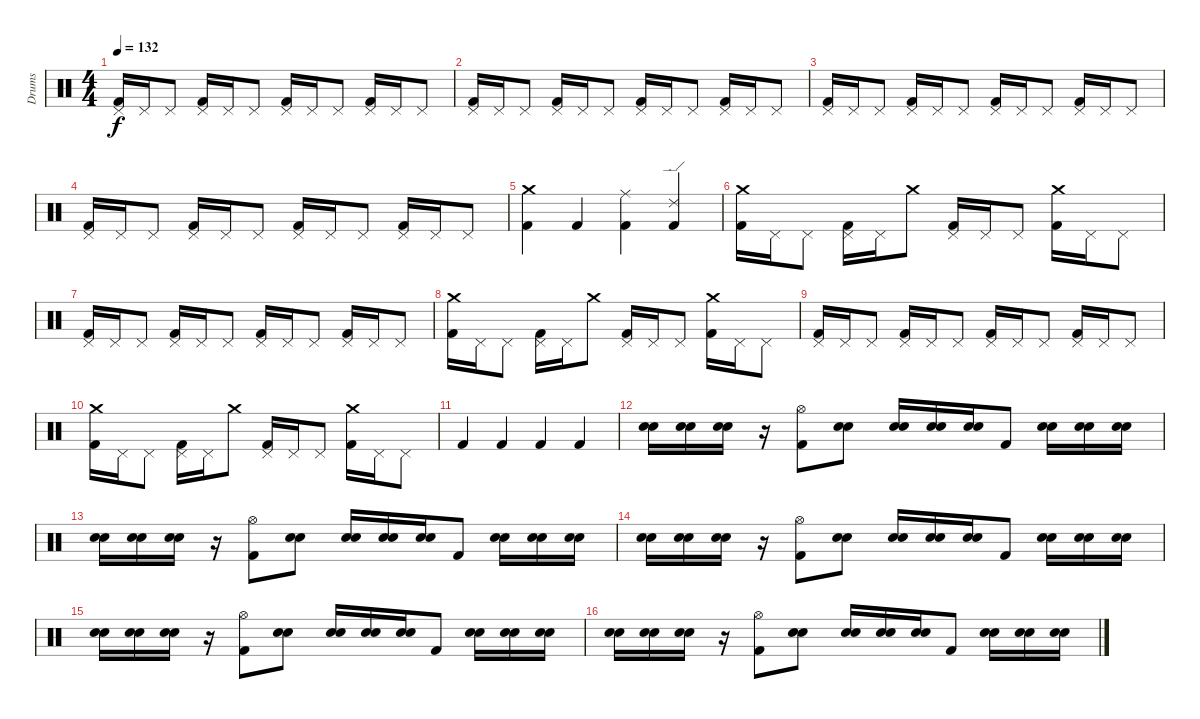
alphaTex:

\track ("Drums" "Drums") {instrument percussion}
\staff {score}
\articulation defaults
\ts (4 4)
\tempo 132
\clef neutral
\ks c
("Kick (hit) 2" "Pedal Hi-Hat (hit)").16{dy f volume 8} "Pedal Hi-Hat (hit)".16 "Pedal Hi-Hat (hit)".8 ("Kick (hit) 2" "Pedal Hi-Hat (hit)").16 "Pedal Hi-Hat (hit)".16 "Pedal Hi-Hat (hit)".8 ("Kick (hit) 2" "Pedal Hi-Hat (hit)").16 "Pedal Hi-Hat (hit)".16 "Pedal Hi-Hat (hit)".8 ("Kick (hit) 2" "Pedal Hi-Hat (hit)").16 "Pedal Hi-Hat (hit)".16 "Pedal Hi-Hat (hit)".8 |
("Kick (hit) 2" "Pedal Hi-Hat (hit)").16{volume 8} "Pedal Hi-Hat (hit)".16 "Pedal Hi-Hat (hit)".8 ("Kick (hit) 2" "Pedal Hi-Hat (hit)").16 "Pedal Hi-Hat (hit)".16 "Pedal Hi-Hat (hit)".8 ("Kick (hit) 2" "Pedal Hi-Hat (hit)").16 "Pedal Hi-Hat (hit)".16 "Pedal Hi-Hat (hit)".8 ("Kick (hit) 2" "Pedal Hi-Hat (hit)").16 "Pedal Hi-Hat (hit)".16 "Pedal Hi-Hat (hit)".8 |
("Kick (hit) 2" "Pedal Hi-Hat (hit)").16{volume 8} "Pedal Hi-Hat (hit)".16 "Pedal Hi-Hat (hit)".8 ("Kick (hit) 2" "Pedal Hi-Hat (hit)").16 "Pedal Hi-Hat (hit)".16 "Pedal Hi-Hat (hit)".8 ("Kick (hit) 2" "Pedal Hi-Hat (hit)").16 "Pedal Hi-Hat (hit)".16 "Pedal Hi-Hat (hit)".8 ("Kick (hit) 2" "Pedal Hi-Hat (hit)").16 "Pedal Hi-Hat (hit)".16 "Pedal Hi-Hat (hit)".8 |
("Kick (hit) 2" "Pedal Hi-Hat (hit)").16{volume 8} "Pedal Hi-Hat (hit)".16 "Pedal Hi-Hat (hit)".8 ("Kick (hit) 2" "Pedal Hi-Hat (hit)").16 "Pedal Hi-Hat (hit)".16 "Pedal Hi-Hat (hit)".8 ("Kick (hit) 2" "Pedal Hi-Hat (hit)").16 "Pedal Hi-Hat (hit)".16 "Pedal Hi-Hat (hit)".8 ("Kick (hit) 2" "Pedal Hi-Hat (hit)").16 "Pedal Hi-Hat (hit)".16 "Pedal Hi-Hat (hit)".8 |
("Kick (hit) 2" "Crash medium (hit)").4 "Kick (hit) 2".4 ("Kick (hit) 2" "Ride (middle)").4 ("Kick (hit) 2" "Ride (edge) 2").4 |
("Kick (hit) 2" "Crash medium (hit)").16{volume 8} "Pedal Hi-Hat (hit)".16 "Pedal Hi-Hat (hit)".8 ("Kick (hit) 2" "Pedal Hi-Hat (hit)").16 "Pedal Hi-Hat (hit)".16 "Crash medium (hit)".8 ("Kick (hit) 2" "Pedal Hi-Hat (hit)").16 "Pedal Hi-Hat (hit)".16 "Pedal Hi-Hat (hit)".8 ("Kick (hit) 2" "Crash medium (hit)").16 "Pedal Hi-Hat (hit)".16 "Pedal Hi-Hat (hit)".8 |
("Kick (hit) 2" "Pedal Hi-Hat (hit)").16{volume 8} "Pedal Hi-Hat (hit)".16 "Pedal Hi-Hat (hit)".8 ("Kick (hit) 2" "Pedal Hi-Hat (hit)").16 "Pedal Hi-Hat (hit)".16 "Pedal Hi-Hat (hit)".8 ("Kick (hit) 2" "Pedal Hi-Hat (hit)").16 "Pedal Hi-Hat (hit)".16 "Pedal Hi-Hat (hit)".8 ("Kick (hit) 2" "Pedal Hi-Hat (hit)").16 "Pedal Hi-Hat (hit)".16 "Pedal Hi-Hat (hit)".8 |
("Kick (hit) 2" "Crash medium (hit)").16{volume 8} "Pedal Hi-Hat (hit)".16 "Pedal Hi-Hat (hit)".8 ("Kick (hit) 2" "Pedal Hi-Hat (hit)").16 "Pedal Hi-Hat (hit)".16 "Crash medium (hit)".8 ("Kick (hit) 2" "Pedal Hi-Hat (hit)").16 "Pedal Hi-Hat (hit)".16 "Pedal Hi-Hat (hit)".8 ("Kick (hit) 2" "Crash medium (hit)").16 "Pedal Hi-Hat (hit)".16 "Pedal Hi-Hat (hit)".8 |
("Kick (hit) 2" "Pedal Hi-Hat (hit)").16{volume 8} "Pedal Hi-Hat (hit)".16 "Pedal Hi-Hat (hit)".8 ("Kick (hit) 2" "Pedal Hi-Hat (hit)").16 "Pedal Hi-Hat (hit)".16 "Pedal Hi-Hat (hit)".8 ("Kick (hit) 2" "Pedal Hi-Hat (hit)").16 "Pedal Hi-Hat (hit)".16 "Pedal Hi-Hat (hit)".8 ("Kick (hit) 2" "Pedal Hi-Hat (hit)").16 "Pedal Hi-Hat (hit)".16 "Pedal Hi-Hat (hit)".8 |
("Kick (hit) 2" "Crash medium (hit)").16{volume 8} "Pedal Hi-Hat (hit)".16 "Pedal Hi-Hat (hit)".8 ("Kick (hit) 2" "Pedal Hi-Hat (hit)").16 "Pedal Hi-Hat (hit)".16 "Crash medium (hit)".8 ("Kick (hit) 2" "Pedal Hi-Hat (hit)").16 "Pedal Hi-Hat (hit)".16 "Pedal Hi-Hat (hit)".8 ("Kick (hit) 2" "Crash medium (hit)").16 "Pedal Hi-Hat (hit)".16 "Pedal Hi-Hat (hit)".8 |
"Kick (hit) 2".4 "Kick (hit) 2".4 "Kick (hit) 2".4 "Kick (hit) 2".4 |
("Snare (hit) 2" "Electric Snare (hit)").16 ("Snare (hit) 2" "Electric Snare (hit)").16 ("Snare (hit) 2" "Electric Snare (hit)").16 r.16 ("Kick (hit) 2" "Hi-Hat (open)").8 ("Snare (hit) 2" "Electric Snare (hit)").8 ("Snare (hit) 2" "Electric Snare (hit)").16 ("Snare (hit) 2" "Electric Snare (hit)").16 ("Snare (hit) 2" "Electric Snare (hit)").16 "Kick (hit) 2".8 ("Snare (hit) 2" "Electric Snare (hit)").16 ("Snare (hit) 2" "Electric Snare (hit)").16 ("Snare (hit) 2" "Electric Snare (hit)").16 |
("Snare (hit) 2" "Electric Snare (hit)").16 ("Snare (hit) 2" "Electric Snare (hit)").16 ("Snare (hit) 2" "Electric Snare (hit)").16 r.16 ("Kick (hit) 2" "Hi-Hat (open)").8 ("Snare (hit) 2" "Electric Snare (hit)").8 ("Snare (hit) 2" "Electric Snare (hit)").16 ("Snare (hit) 2" "Electric Snare (hit)").16 ("Snare (hit) 2" "Electric Snare (hit)").16 "Kick (hit) 2".8 ("Snare (hit) 2" "Electric Snare (hit)").16 ("Snare (hit) 2" "Electric Snare (hit)").16 ("Snare (hit) 2" "Electric Snare (hit)").16 |
("Snare (hit) 2" "Electric Snare (hit)").16 ("Snare (hit) 2" "Electric Snare (hit)").16 ("Snare (hit) 2" "Electric Snare (hit)").16 r.16 ("Kick (hit) 2" "Hi-Hat (open)").8 ("Snare (hit) 2" "Electric Snare (hit)").8 ("Snare (hit) 2" "Electric Snare (hit)").16 ("Snare (hit) 2" "Electric Snare (hit)").16 ("Snare (hit) 2" "Electric Snare (hit)").16 "Kick (hit) 2".8 ("Snare (hit) 2" "Electric Snare (hit)").16 ("Snare (hit) 2" "Electric Snare (hit)").16 ("Snare (hit) 2" "Electric Snare (hit)").16 |
("Snare (hit) 2" "Electric Snare (hit)").16 ("Snare (hit) 2" "Electric Snare (hit)").16 ("Snare (hit) 2" "Electric Snare (hit)").16 r.16 ("Kick (hit) 2" "Hi-Hat (open)").8 ("Snare (hit) 2" "Electric Snare (hit)").8 ("Snare (hit) 2" "Electric Snare (hit)").16 ("Snare (hit) 2" "Electric Snare (hit)").16 ("Snare (hit) 2" "Electric Snare (hit)").16 "Kick (hit) 2".8 ("Snare (hit) 2" "Electric Snare (hit)").16 ("Snare (hit) 2" "Electric Snare (hit)").16 ("Snare (hit) 2" "Electric Snare (hit)").16 |
("Snare (hit) 2" "Electric Snare (hit)").16 ("Snare (hit) 2" "Electric Snare (hit)").16 ("Snare (hit) 2" "Electric Snare (hit)").16 r.16 ("Kick (hit) 2" "Hi-Hat (open)").8 ("Snare (hit) 2" "Electric Snare (hit)").8 ("Snare (hit) 2" "Electric Snare (hit)").16 ("Snare (hit) 2" "Electric Snare (hit)").16 ("Snare (hit) 2" "Electric Snare (hit)").16 "Kick (hit) 2".8 ("Snare (hit) 2" "Electric Snare (hit)").16 ("Snare (hit) 2" "Electric Snare (hit)").16 ("Snare (hit) 2" "Electric Snare (hit)").16
